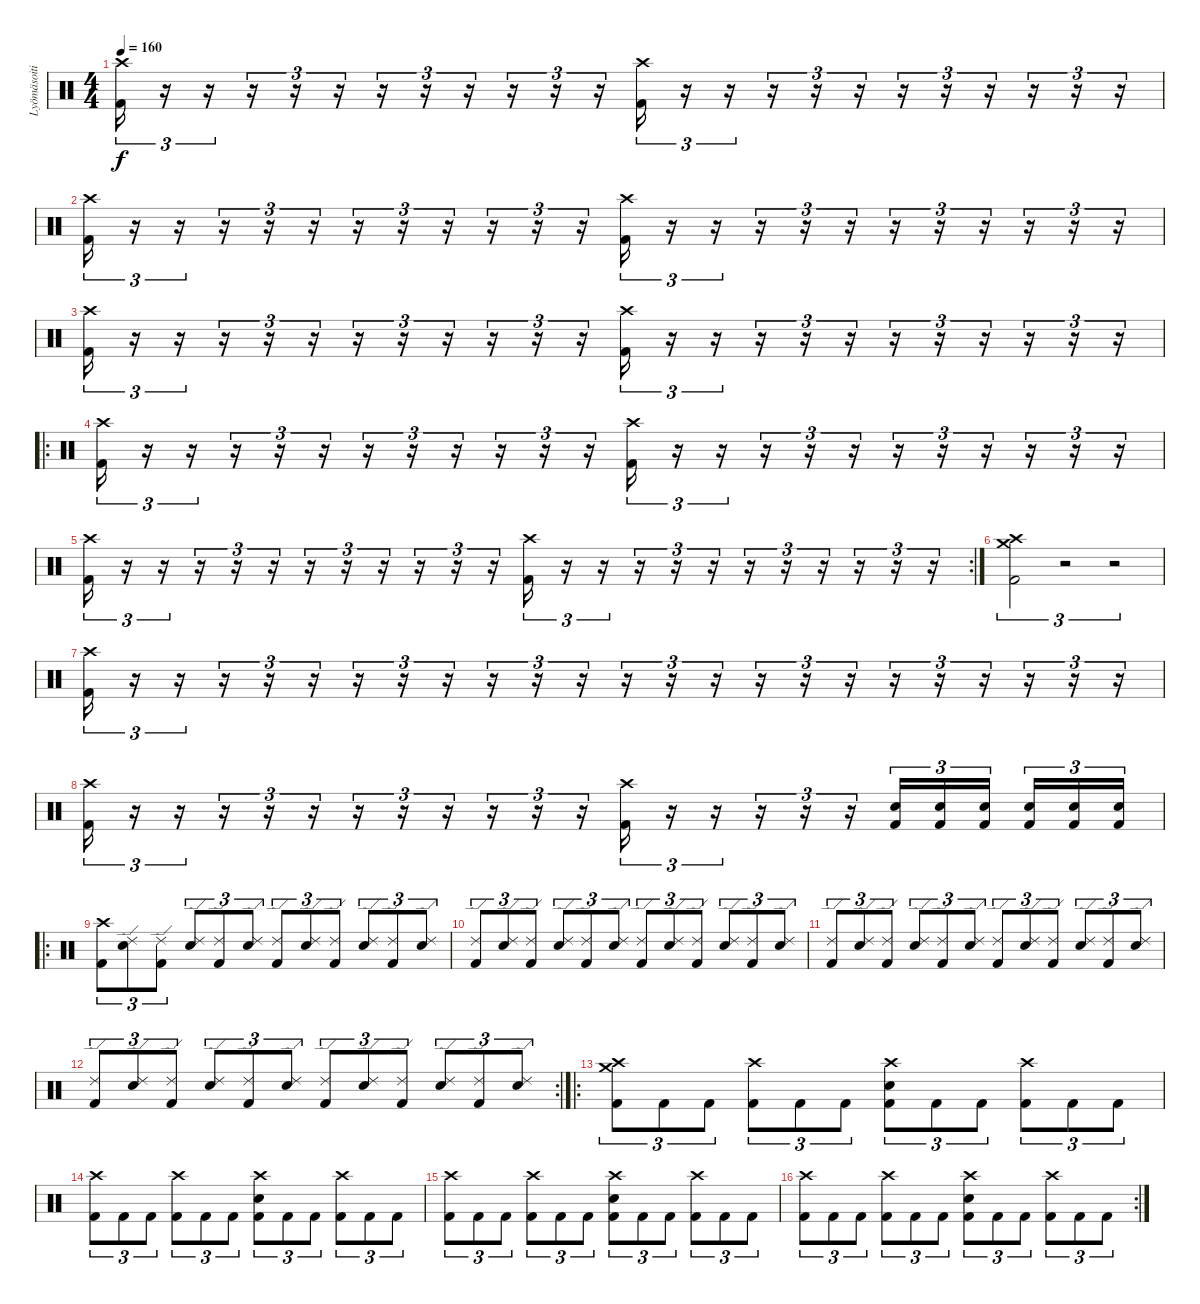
\track ("Lyömäsoitin" "Lyömäsoiti") {instrument percussion}
\staff {score}
\articulation defaults
\ts (4 4)
\tempo 160
\clef neutral
\ks c
("Crash high (hit)" "Kick (hit) 2").16{tu (3 2) dy f} r.16{tu (3 2)} r.16{tu (3 2)} r.16{tu (3 2)} r.16{tu (3 2)} r.16{tu (3 2)} r.16{tu (3 2)} r.16{tu (3 2)} r.16{tu (3 2)} r.16{tu (3 2)} r.16{tu (3 2)} r.16{tu (3 2)} ("Crash high (hit)" "Kick (hit) 2").16{tu (3 2)} r.16{tu (3 2)} r.16{tu (3 2)} r.16{tu (3 2)} r.16{tu (3 2)} r.16{tu (3 2)} r.16{tu (3 2)} r.16{tu (3 2)} r.16{tu (3 2)} r.16{tu (3 2)} r.16{tu (3 2)} r.16{tu (3 2)} |
("Crash high (hit)" "Kick (hit) 2").16{tu (3 2)} r.16{tu (3 2)} r.16{tu (3 2)} r.16{tu (3 2)} r.16{tu (3 2)} r.16{tu (3 2)} r.16{tu (3 2)} r.16{tu (3 2)} r.16{tu (3 2)} r.16{tu (3 2)} r.16{tu (3 2)} r.16{tu (3 2)} ("Crash high (hit)" "Kick (hit) 2").16{tu (3 2)} r.16{tu (3 2)} r.16{tu (3 2)} r.16{tu (3 2)} r.16{tu (3 2)} r.16{tu (3 2)} r.16{tu (3 2)} r.16{tu (3 2)} r.16{tu (3 2)} r.16{tu (3 2)} r.16{tu (3 2)} r.16{tu (3 2)} |
("Crash high (hit)" "Kick (hit) 2").16{tu (3 2)} r.16{tu (3 2)} r.16{tu (3 2)} r.16{tu (3 2)} r.16{tu (3 2)} r.16{tu (3 2)} r.16{tu (3 2)} r.16{tu (3 2)} r.16{tu (3 2)} r.16{tu (3 2)} r.16{tu (3 2)} r.16{tu (3 2)} ("Crash high (hit)" "Kick (hit) 2").16{tu (3 2)} r.16{tu (3 2)} r.16{tu (3 2)} r.16{tu (3 2)} r.16{tu (3 2)} r.16{tu (3 2)} r.16{tu (3 2)} r.16{tu (3 2)} r.16{tu (3 2)} r.16{tu (3 2)} r.16{tu (3 2)} r.16{tu (3 2)} |
\ro
("Crash high (hit)" "Kick (hit) 2").16{tu (3 2)} r.16{tu (3 2)} r.16{tu (3 2)} r.16{tu (3 2)} r.16{tu (3 2)} r.16{tu (3 2)} r.16{tu (3 2)} r.16{tu (3 2)} r.16{tu (3 2)} r.16{tu (3 2)} r.16{tu (3 2)} r.16{tu (3 2)} ("Crash high (hit)" "Kick (hit) 2").16{tu (3 2)} r.16{tu (3 2)} r.16{tu (3 2)} r.16{tu (3 2)} r.16{tu (3 2)} r.16{tu (3 2)} r.16{tu (3 2)} r.16{tu (3 2)} r.16{tu (3 2)} r.16{tu (3 2)} r.16{tu (3 2)} r.16{tu (3 2)} |
\rc 2
("Crash high (hit)" "Kick (hit) 2").16{tu (3 2)} r.16{tu (3 2)} r.16{tu (3 2)} r.16{tu (3 2)} r.16{tu (3 2)} r.16{tu (3 2)} r.16{tu (3 2)} r.16{tu (3 2)} r.16{tu (3 2)} r.16{tu (3 2)} r.16{tu (3 2)} r.16{tu (3 2)} ("Crash high (hit)" "Kick (hit) 2").16{tu (3 2)} r.16{tu (3 2)} r.16{tu (3 2)} r.16{tu (3 2)} r.16{tu (3 2)} r.16{tu (3 2)} r.16{tu (3 2)} r.16{tu (3 2)} r.16{tu (3 2)} r.16{tu (3 2)} r.16{tu (3 2)} r.16{tu (3 2)} |
("Crash medium (hit)" "Crash high (hit)" "Kick (hit) 2").2{tu (3 2)} r.2{tu (3 2)} r.2{tu (3 2)} |
("Crash high (hit)" "Kick (hit) 2").16{tu (3 2)} r.16{tu (3 2)} r.16{tu (3 2)} r.16{tu (3 2)} r.16{tu (3 2)} r.16{tu (3 2)} r.16{tu (3 2)} r.16{tu (3 2)} r.16{tu (3 2)} r.16{tu (3 2)} r.16{tu (3 2)} r.16{tu (3 2)} r.16{tu (3 2)} r.16{tu (3 2)} r.16{tu (3 2)} r.16{tu (3 2)} r.16{tu (3 2)} r.16{tu (3 2)} r.16{tu (3 2)} r.16{tu (3 2)} r.16{tu (3 2)} r.16{tu (3 2)} r.16{tu (3 2)} r.16{tu (3 2)} |
("Crash high (hit)" "Kick (hit) 2").16{tu (3 2)} r.16{tu (3 2)} r.16{tu (3 2)} r.16{tu (3 2)} r.16{tu (3 2)} r.16{tu (3 2)} r.16{tu (3 2)} r.16{tu (3 2)} r.16{tu (3 2)} r.16{tu (3 2)} r.16{tu (3 2)} r.16{tu (3 2)} ("Crash high (hit)" "Kick (hit) 2").16{tu (3 2)} r.16{tu (3 2)} r.16{tu (3 2)} r.16{tu (3 2)} r.16{tu (3 2)} r.16{tu (3 2)} ("Snare (hit) 2" "Kick (hit) 2").16{tu (3 2)} ("Snare (hit) 2" "Kick (hit) 2").16{tu (3 2)} ("Snare (hit) 2" "Kick (hit) 2").16{tu (3 2) beam splitsecondary} ("Snare (hit) 2" "Kick (hit) 2").16{tu (3 2)} ("Snare (hit) 2" "Kick (hit) 2").16{tu (3 2)} ("Snare (hit) 2" "Kick (hit) 2").16{tu (3 2)} |
\ro
("Crash high (hit)" "Kick (hit) 2").8{tu (3 2)} ("Ride (edge) 2" "Snare (hit) 2").8{tu (3 2)} ("Ride (edge) 2" "Kick (hit) 2").8{tu (3 2)} ("Ride (edge) 2" "Snare (hit) 2").8{tu (3 2)} ("Ride (edge) 2" "Kick (hit) 2").8{tu (3 2)} ("Ride (edge) 2" "Snare (hit) 2").8{tu (3 2)} ("Ride (edge) 2" "Kick (hit) 2").8{tu (3 2)} ("Ride (edge) 2" "Snare (hit) 2").8{tu (3 2)} ("Ride (edge) 2" "Kick (hit) 2").8{tu (3 2)} ("Ride (edge) 2" "Snare (hit) 2").8{tu (3 2)} ("Ride (edge) 2" "Kick (hit) 2").8{tu (3 2)} ("Ride (edge) 2" "Snare (hit) 2").8{tu (3 2)} |
("Ride (edge) 2" "Kick (hit) 2").8{tu (3 2)} ("Ride (edge) 2" "Snare (hit) 2").8{tu (3 2)} ("Ride (edge) 2" "Kick (hit) 2").8{tu (3 2)} ("Ride (edge) 2" "Snare (hit) 2").8{tu (3 2)} ("Ride (edge) 2" "Kick (hit) 2").8{tu (3 2)} ("Ride (edge) 2" "Snare (hit) 2").8{tu (3 2)} ("Ride (edge) 2" "Kick (hit) 2").8{tu (3 2)} ("Ride (edge) 2" "Snare (hit) 2").8{tu (3 2)} ("Ride (edge) 2" "Kick (hit) 2").8{tu (3 2)} ("Ride (edge) 2" "Snare (hit) 2").8{tu (3 2)} ("Ride (edge) 2" "Kick (hit) 2").8{tu (3 2)} ("Ride (edge) 2" "Snare (hit) 2").8{tu (3 2)} |
("Ride (edge) 2" "Kick (hit) 2").8{tu (3 2)} ("Ride (edge) 2" "Snare (hit) 2").8{tu (3 2)} ("Ride (edge) 2" "Kick (hit) 2").8{tu (3 2)} ("Ride (edge) 2" "Snare (hit) 2").8{tu (3 2)} ("Ride (edge) 2" "Kick (hit) 2").8{tu (3 2)} ("Ride (edge) 2" "Snare (hit) 2").8{tu (3 2)} ("Ride (edge) 2" "Kick (hit) 2").8{tu (3 2)} ("Ride (edge) 2" "Snare (hit) 2").8{tu (3 2)} ("Ride (edge) 2" "Kick (hit) 2").8{tu (3 2)} ("Ride (edge) 2" "Snare (hit) 2").8{tu (3 2)} ("Ride (edge) 2" "Kick (hit) 2").8{tu (3 2)} ("Ride (edge) 2" "Snare (hit) 2").8{tu (3 2)} |
\rc 2
("Ride (edge) 2" "Kick (hit) 2").8{tu (3 2)} ("Ride (edge) 2" "Snare (hit) 2").8{tu (3 2)} ("Ride (edge) 2" "Kick (hit) 2").8{tu (3 2)} ("Ride (edge) 2" "Snare (hit) 2").8{tu (3 2)} ("Ride (edge) 2" "Kick (hit) 2").8{tu (3 2)} ("Ride (edge) 2" "Snare (hit) 2").8{tu (3 2)} ("Ride (edge) 2" "Kick (hit) 2").8{tu (3 2)} ("Ride (edge) 2" "Snare (hit) 2").8{tu (3 2)} ("Ride (edge) 2" "Kick (hit) 2").8{tu (3 2)} ("Ride (edge) 2" "Snare (hit) 2").8{tu (3 2)} ("Ride (edge) 2" "Kick (hit) 2").8{tu (3 2)} ("Ride (edge) 2" "Snare (hit) 2").8{tu (3 2)} |
\ro
("Crash medium (hit)" "Crash high (hit)" "Kick (hit) 2").8{tu (3 2)} "Kick (hit) 2".8{tu (3 2)} "Kick (hit) 2".8{tu (3 2)} ("Crash high (hit)" "Kick (hit) 2").8{tu (3 2)} "Kick (hit) 2".8{tu (3 2)} "Kick (hit) 2".8{tu (3 2)} ("Crash high (hit)" "Snare (hit) 2" "Kick (hit) 2").8{tu (3 2)} "Kick (hit) 2".8{tu (3 2)} "Kick (hit) 2".8{tu (3 2)} ("Crash high (hit)" "Kick (hit) 2").8{tu (3 2)} "Kick (hit) 2".8{tu (3 2)} "Kick (hit) 2".8{tu (3 2)} |
("Crash high (hit)" "Kick (hit) 2").8{tu (3 2)} "Kick (hit) 2".8{tu (3 2)} "Kick (hit) 2".8{tu (3 2)} ("Crash high (hit)" "Kick (hit) 2").8{tu (3 2)} "Kick (hit) 2".8{tu (3 2)} "Kick (hit) 2".8{tu (3 2)} ("Crash high (hit)" "Snare (hit) 2" "Kick (hit) 2").8{tu (3 2)} "Kick (hit) 2".8{tu (3 2)} "Kick (hit) 2".8{tu (3 2)} ("Crash high (hit)" "Kick (hit) 2").8{tu (3 2)} "Kick (hit) 2".8{tu (3 2)} "Kick (hit) 2".8{tu (3 2)} |
("Crash high (hit)" "Kick (hit) 2").8{tu (3 2)} "Kick (hit) 2".8{tu (3 2)} "Kick (hit) 2".8{tu (3 2)} ("Crash high (hit)" "Kick (hit) 2").8{tu (3 2)} "Kick (hit) 2".8{tu (3 2)} "Kick (hit) 2".8{tu (3 2)} ("Crash high (hit)" "Snare (hit) 2" "Kick (hit) 2").8{tu (3 2)} "Kick (hit) 2".8{tu (3 2)} "Kick (hit) 2".8{tu (3 2)} ("Crash high (hit)" "Kick (hit) 2").8{tu (3 2)} "Kick (hit) 2".8{tu (3 2)} "Kick (hit) 2".8{tu (3 2)} |
\rc 2
("Crash high (hit)" "Kick (hit) 2").8{tu (3 2)} "Kick (hit) 2".8{tu (3 2)} "Kick (hit) 2".8{tu (3 2)} ("Crash high (hit)" "Kick (hit) 2").8{tu (3 2)} "Kick (hit) 2".8{tu (3 2)} "Kick (hit) 2".8{tu (3 2)} ("Crash high (hit)" "Snare (hit) 2" "Kick (hit) 2").8{tu (3 2)} "Kick (hit) 2".8{tu (3 2)} "Kick (hit) 2".8{tu (3 2)} ("Crash high (hit)" "Kick (hit) 2").8{tu (3 2)} "Kick (hit) 2".8{tu (3 2)} "Kick (hit) 2".8{tu (3 2)}
